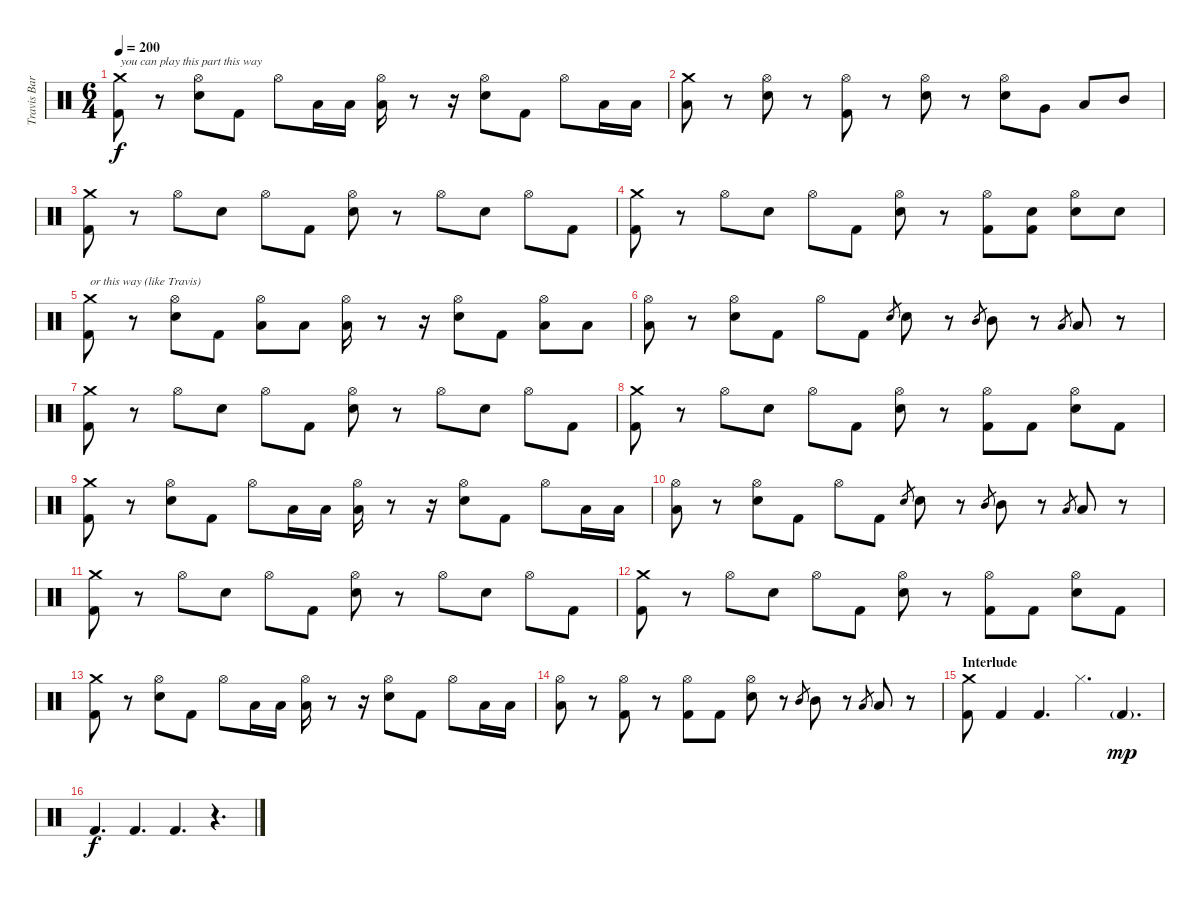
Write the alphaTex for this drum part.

\track ("Travis Barker - Drums" "Travis Bar") {instrument percussion}
\staff {score}
\articulation defaults
\ts (6 4)
\tempo 200
\clef neutral
\ks c
("Crash medium (hit)" "Kick (hit) 2").8{txt "you can play this part this way" dy f} r.8 ("Hi-Hat (open)" "Electric Snare (hit)").8 "Kick (hit) 2".8 "Hi-Hat (open)".8 "Low Tom (hit)".16 "Low Tom (hit)".16 ("Hi-Hat (open)" "Low Tom (hit)").16 r.8 r.16 ("Hi-Hat (open)" "Electric Snare (hit)").8 "Kick (hit) 2".8 "Hi-Hat (open)".8 "Low Tom (hit)".16 "Low Tom (hit)".16 |
("Crash medium (hit)" "Low Tom (hit)").8 r.8 ("Hi-Hat (open)" "Electric Snare (hit)").8 r.8 ("Hi-Hat (open)" "Kick (hit) 2").8 r.8 ("Hi-Hat (open)" "Electric Snare (hit)").8 r.8 ("Hi-Hat (open)" "Electric Snare (hit)").8 "Very Low Tom (hit)".8 "Low Tom (hit)".8 "Mid Tom (hit)".8 |
("Crash medium (hit)" "Kick (hit) 2").8 r.8 "Hi-Hat (open)".8 "Electric Snare (hit)".8 "Hi-Hat (open)".8 "Kick (hit) 2".8 ("Hi-Hat (open)" "Electric Snare (hit)").8 r.8 "Hi-Hat (open)".8 "Electric Snare (hit)".8 "Hi-Hat (open)".8 "Kick (hit) 2".8 |
("Crash medium (hit)" "Kick (hit) 2").8 r.8 "Hi-Hat (open)".8 "Electric Snare (hit)".8 "Hi-Hat (open)".8 "Kick (hit) 2".8 ("Hi-Hat (open)" "Electric Snare (hit)").8 r.8 ("Hi-Hat (open)" "Kick (hit) 2").8 ("Electric Snare (hit)" "Kick (hit) 2").8 ("Hi-Hat (open)" "Electric Snare (hit)").8 "Electric Snare (hit)".8 |
("Crash medium (hit)" "Kick (hit) 2").8{txt "or this way (like Travis)"} r.8 ("Hi-Hat (open)" "Electric Snare (hit)").8 "Kick (hit) 2".8 ("Hi-Hat (open)" "Low Tom (hit)").8 "Low Tom (hit)".8 ("Hi-Hat (open)" "Low Tom (hit)").16 r.8 r.16 ("Hi-Hat (open)" "Electric Snare (hit)").8 "Kick (hit) 2".8 ("Hi-Hat (open)" "Low Tom (hit)").8 "Low Tom (hit)".8 |
("Hi-Hat (open)" "Low Tom (hit)").8 r.8 ("Hi-Hat (open)" "Electric Snare (hit)").8 "Kick (hit) 2".8 "Hi-Hat (open)".8 "Kick (hit) 2".8 "Electric Snare (hit)".8{gr} "Electric Snare (hit)".8 r.8 "Mid Tom (hit)".8{gr} "Mid Tom (hit)".8 r.8 "Low Tom (hit)".8{gr} "Low Tom (hit)".8 r.8 |
("Crash medium (hit)" "Kick (hit) 2").8 r.8 "Hi-Hat (open)".8 "Electric Snare (hit)".8 "Hi-Hat (open)".8 "Kick (hit) 2".8 ("Hi-Hat (open)" "Electric Snare (hit)").8 r.8 "Hi-Hat (open)".8 "Electric Snare (hit)".8 "Hi-Hat (open)".8 "Kick (hit) 2".8 |
("Crash medium (hit)" "Kick (hit) 2").8 r.8 "Hi-Hat (open)".8 "Electric Snare (hit)".8 "Hi-Hat (open)".8 "Kick (hit) 2".8 ("Hi-Hat (open)" "Electric Snare (hit)").8 r.8 ("Hi-Hat (open)" "Kick (hit) 2").8 "Kick (hit) 2".8 ("Hi-Hat (open)" "Electric Snare (hit)").8 "Kick (hit) 2".8 |
("Crash medium (hit)" "Kick (hit) 2").8 r.8 ("Hi-Hat (open)" "Electric Snare (hit)").8 "Kick (hit) 2".8 "Hi-Hat (open)".8 "Low Tom (hit)".16 "Low Tom (hit)".16 ("Hi-Hat (open)" "Low Tom (hit)").16 r.8 r.16 ("Hi-Hat (open)" "Electric Snare (hit)").8 "Kick (hit) 2".8 "Hi-Hat (open)".8 "Low Tom (hit)".16 "Low Tom (hit)".16 |
("Hi-Hat (open)" "Low Tom (hit)").8 r.8 ("Hi-Hat (open)" "Electric Snare (hit)").8 "Kick (hit) 2".8 "Hi-Hat (open)".8 "Kick (hit) 2".8 "Electric Snare (hit)".8{gr} "Electric Snare (hit)".8 r.8 "Mid Tom (hit)".8{gr} "Mid Tom (hit)".8 r.8 "Low Tom (hit)".8{gr} "Low Tom (hit)".8 r.8 |
("Crash medium (hit)" "Kick (hit) 2").8 r.8 "Hi-Hat (open)".8 "Electric Snare (hit)".8 "Hi-Hat (open)".8 "Kick (hit) 2".8 ("Hi-Hat (open)" "Electric Snare (hit)").8 r.8 "Hi-Hat (open)".8 "Electric Snare (hit)".8 "Hi-Hat (open)".8 "Kick (hit) 2".8 |
("Crash medium (hit)" "Kick (hit) 2").8 r.8 "Hi-Hat (open)".8 "Electric Snare (hit)".8 "Hi-Hat (open)".8 "Kick (hit) 2".8 ("Hi-Hat (open)" "Electric Snare (hit)").8 r.8 ("Hi-Hat (open)" "Kick (hit) 2").8 "Kick (hit) 2".8 ("Hi-Hat (open)" "Electric Snare (hit)").8 "Kick (hit) 2".8 |
("Crash medium (hit)" "Kick (hit) 2").8 r.8 ("Hi-Hat (open)" "Electric Snare (hit)").8 "Kick (hit) 2".8 "Hi-Hat (open)".8 "Low Tom (hit)".16 "Low Tom (hit)".16 ("Hi-Hat (open)" "Low Tom (hit)").16 r.8 r.16 ("Hi-Hat (open)" "Electric Snare (hit)").8 "Kick (hit) 2".8 "Hi-Hat (open)".8 "Low Tom (hit)".16 "Low Tom (hit)".16 |
("Hi-Hat (open)" "Low Tom (hit)").8 r.8 ("Hi-Hat (open)" "Kick (hit) 2").8 r.8 ("Hi-Hat (open)" "Kick (hit) 2").8 "Kick (hit) 2".8 ("Hi-Hat (open)" "Electric Snare (hit)").8 r.8 "Mid Tom (hit)".8{gr} "Mid Tom (hit)".8 r.8 "Low Tom (hit)".8{gr} "Low Tom (hit)".8 r.8 |
\section ("" "Interlude")
("Crash medium (hit)" "Kick (hit) 2").8 "Kick (hit) 2".4 "Kick (hit) 2".4{d} "Hi-Hat (closed)".4{d} "Kick (hit) 2"{g}.4{d dy mp} |
"Kick (hit) 2".4{d dy f} "Kick (hit) 2".4{d} "Kick (hit) 2".4{d} r.4{d}
